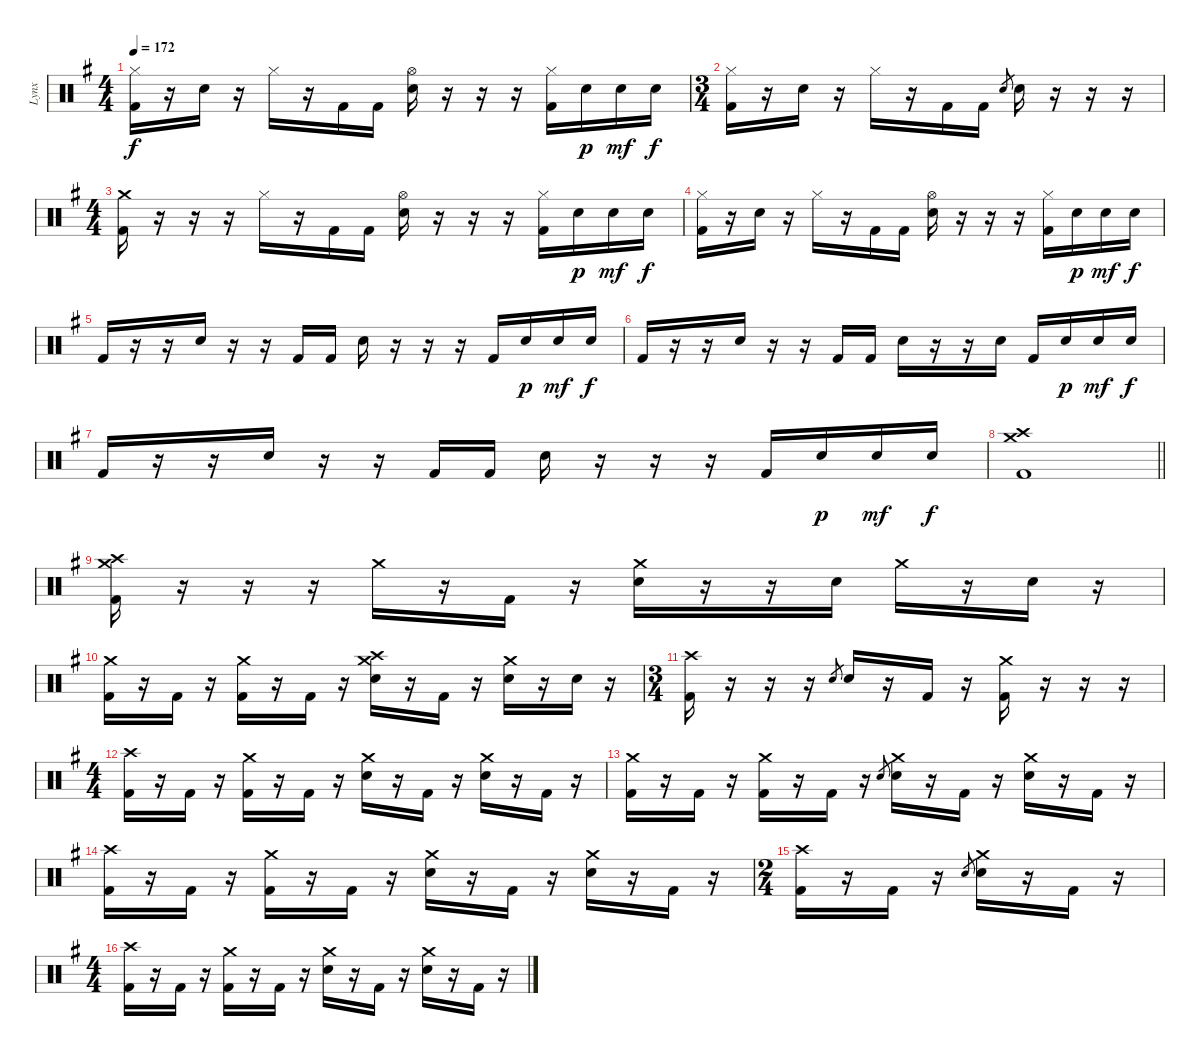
\track ("Lynx" "Lynx") {instrument percussion}
\staff {score}
\articulation defaults
\ts (4 4)
\tempo 172
\clef neutral
\ks g
("Hi-Hat (closed)" "Kick (hit) 2").16{dy f} r.16 "Electric Snare (hit)".16 r.16 "Hi-Hat (closed)".16 r.16 "Kick (hit) 2".16 "Kick (hit) 2".16 ("Hi-Hat (open)" "Electric Snare (hit)").16 r.16 r.16 r.16 ("Hi-Hat (closed)" "Kick (hit) 2").16 "Electric Snare (hit)".16{dy p} "Electric Snare (hit)".16{dy mf} "Electric Snare (hit)".16{dy f} |
\ts (3 4)
("Hi-Hat (closed)" "Kick (hit) 2").16 r.16 "Electric Snare (hit)".16 r.16 "Hi-Hat (closed)".16 r.16 "Kick (hit) 2".16 "Kick (hit) 2".16 "Electric Snare (hit)".8{gr} "Electric Snare (hit)".16 r.16 r.16 r.16 |
\ts (4 4)
("Crash medium (hit)" "Kick (hit) 2").16 r.16 r.16 r.16 "Hi-Hat (closed)".16 r.16 "Kick (hit) 2".16 "Kick (hit) 2".16 ("Hi-Hat (open)" "Electric Snare (hit)").16 r.16 r.16 r.16 ("Hi-Hat (closed)" "Kick (hit) 2").16 "Electric Snare (hit)".16{dy p} "Electric Snare (hit)".16{dy mf} "Electric Snare (hit)".16{dy f} |
("Hi-Hat (closed)" "Kick (hit) 2").16 r.16 "Electric Snare (hit)".16 r.16 "Hi-Hat (closed)".16 r.16 "Kick (hit) 2".16 "Kick (hit) 2".16 ("Hi-Hat (open)" "Electric Snare (hit)").16 r.16 r.16 r.16 ("Hi-Hat (closed)" "Kick (hit) 2").16 "Electric Snare (hit)".16{dy p} "Electric Snare (hit)".16{dy mf} "Electric Snare (hit)".16{dy f} |
"Kick (hit) 2".16 r.16 r.16 "Electric Snare (hit)".16 r.16 r.16 "Kick (hit) 2".16 "Kick (hit) 2".16 "Electric Snare (hit)".16 r.16 r.16 r.16 "Kick (hit) 2".16 "Electric Snare (hit)".16{dy p} "Electric Snare (hit)".16{dy mf} "Electric Snare (hit)".16{dy f} |
"Kick (hit) 2".16 r.16 r.16 "Electric Snare (hit)".16 r.16 r.16 "Kick (hit) 2".16 "Kick (hit) 2".16 "Electric Snare (hit)".16 r.16 r.16 "Electric Snare (hit)".16 "Kick (hit) 2".16 "Electric Snare (hit)".16{dy p} "Electric Snare (hit)".16{dy mf} "Electric Snare (hit)".16{dy f} |
"Kick (hit) 2".16 r.16 r.16 "Electric Snare (hit)".16 r.16 r.16 "Kick (hit) 2".16 "Kick (hit) 2".16 "Electric Snare (hit)".16 r.16 r.16 r.16 "Kick (hit) 2".16 "Electric Snare (hit)".16{dy p} "Electric Snare (hit)".16{dy mf} "Electric Snare (hit)".16{dy f} |
\barLineRight lightlight
("Crash high (hit)" "Crash medium (hit)" "Kick (hit) 2").1 |
\section ("" "")
("Crash high (hit)" "Crash medium (hit)" "Kick (hit) 2").16 r.16 r.16 r.16 "Crash medium (hit)".16 r.16 "Kick (hit) 2".16 r.16 ("Crash medium (hit)" "Electric Snare (hit)").16 r.16 r.16 "Electric Snare (hit)".16 "Crash medium (hit)".16 r.16 "Electric Snare (hit)".16 r.16 |
("Crash medium (hit)" "Kick (hit) 2").16 r.16 "Kick (hit) 2".16 r.16 ("Crash medium (hit)" "Kick (hit) 2").16 r.16 "Kick (hit) 2".16 r.16 ("Crash medium (hit)" "Crash high (hit)" "Electric Snare (hit)").16 r.16 "Kick (hit) 2".16 r.16 ("Crash medium (hit)" "Electric Snare (hit)").16 r.16 "Electric Snare (hit)".16 r.16 |
\ts (3 4)
("Crash high (hit)" "Kick (hit) 2").16 r.16 r.16 r.16 "Electric Snare (hit)".8{gr} "Electric Snare (hit)".16 r.16 "Kick (hit) 2".16 r.16 ("Crash medium (hit)" "Kick (hit) 2").16 r.16 r.16 r.16 |
\ts (4 4)
("Crash high (hit)" "Kick (hit) 2").16 r.16 "Kick (hit) 2".16 r.16 ("Crash medium (hit)" "Kick (hit) 2").16 r.16 "Kick (hit) 2".16 r.16 ("Crash medium (hit)" "Electric Snare (hit)").16 r.16 "Kick (hit) 2".16 r.16 ("Crash medium (hit)" "Electric Snare (hit)").16 r.16 "Kick (hit) 2".16 r.16 |
("Crash medium (hit)" "Kick (hit) 2").16 r.16 "Kick (hit) 2".16 r.16 ("Crash medium (hit)" "Kick (hit) 2").16 r.16 "Kick (hit) 2".16 r.16 "Electric Snare (hit)".8{gr} ("Crash medium (hit)" "Electric Snare (hit)").16 r.16 "Kick (hit) 2".16 r.16 ("Crash medium (hit)" "Electric Snare (hit)").16 r.16 "Kick (hit) 2".16 r.16 |
("Crash high (hit)" "Kick (hit) 2").16 r.16 "Kick (hit) 2".16 r.16 ("Crash medium (hit)" "Kick (hit) 2").16 r.16 "Kick (hit) 2".16 r.16 ("Crash medium (hit)" "Electric Snare (hit)").16 r.16 "Kick (hit) 2".16 r.16 ("Crash medium (hit)" "Electric Snare (hit)").16 r.16 "Kick (hit) 2".16 r.16 |
\ts (2 4)
("Crash high (hit)" "Kick (hit) 2").16 r.16 "Kick (hit) 2".16 r.16 "Electric Snare (hit)".8{gr} ("Crash medium (hit)" "Electric Snare (hit)").16 r.16 "Kick (hit) 2".16 r.16 |
\ts (4 4)
("Crash high (hit)" "Kick (hit) 2").16 r.16 "Kick (hit) 2".16 r.16 ("Crash medium (hit)" "Kick (hit) 2").16 r.16 "Kick (hit) 2".16 r.16 ("Crash medium (hit)" "Electric Snare (hit)").16 r.16 "Kick (hit) 2".16 r.16 ("Crash medium (hit)" "Electric Snare (hit)").16 r.16 "Kick (hit) 2".16 r.16
